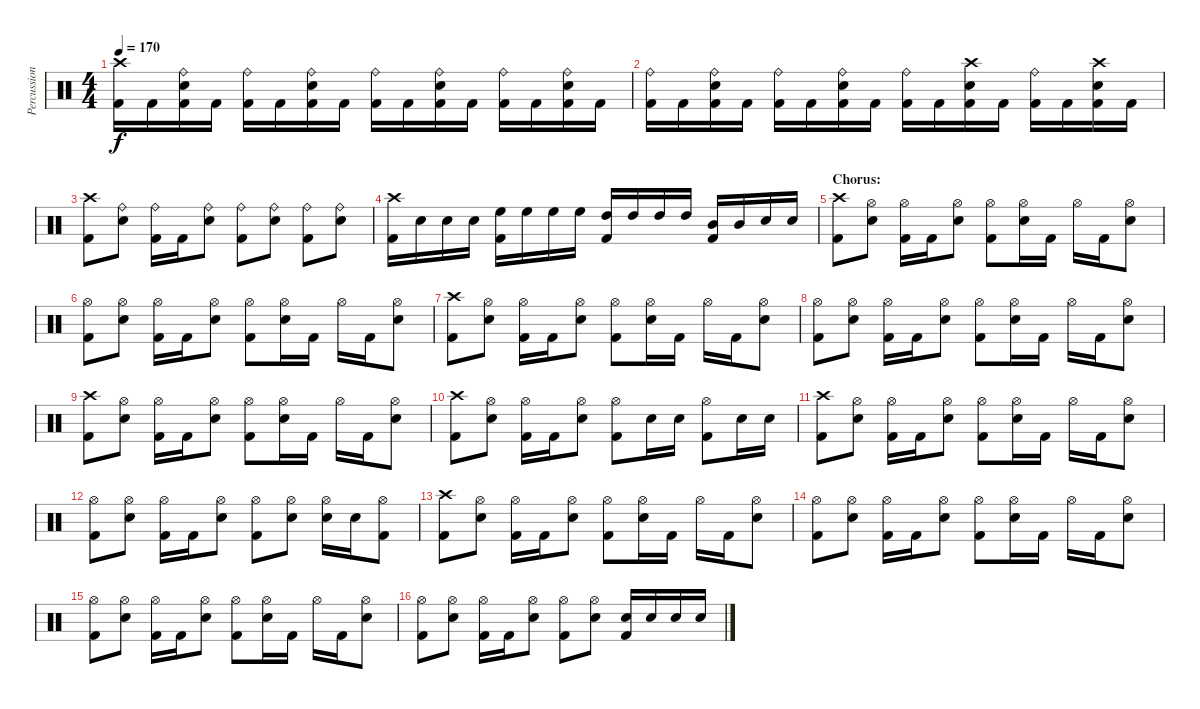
\track ("Percussion" "Percussion") {instrument percussion}
\staff {score}
\articulation defaults
\ts (4 4)
\tempo 170
\clef neutral
\ks c
("Crash high (hit)" "Kick (hit) 2").16{dy f} "Kick (hit) 2".16 ("Ride (bell)" "Electric Snare (hit)" "Kick (hit) 2").16 "Kick (hit) 2".16 ("Ride (bell)" "Kick (hit) 2").16 "Kick (hit) 2".16 ("Ride (bell)" "Electric Snare (hit)" "Kick (hit) 2").16 "Kick (hit) 2".16 ("Ride (bell)" "Kick (hit) 2").16 "Kick (hit) 2".16 ("Ride (bell)" "Electric Snare (hit)" "Kick (hit) 2").16 "Kick (hit) 2".16 ("Ride (bell)" "Kick (hit) 2").16 "Kick (hit) 2".16 ("Ride (bell)" "Electric Snare (hit)" "Kick (hit) 2").16 "Kick (hit) 2".16 |
("Ride (bell)" "Kick (hit) 2").16 "Kick (hit) 2".16 ("Ride (bell)" "Electric Snare (hit)" "Kick (hit) 2").16 "Kick (hit) 2".16 ("Ride (bell)" "Kick (hit) 2").16 "Kick (hit) 2".16 ("Ride (bell)" "Electric Snare (hit)" "Kick (hit) 2").16 "Kick (hit) 2".16 ("Ride (bell)" "Kick (hit) 2").16 "Kick (hit) 2".16 ("Crash high (hit)" "Electric Snare (hit)" "Kick (hit) 2").16 "Kick (hit) 2".16 ("Ride (bell)" "Kick (hit) 2").16 "Kick (hit) 2".16 ("Crash high (hit)" "Electric Snare (hit)" "Kick (hit) 2").16 "Kick (hit) 2".16 |
("Crash high (hit)" "Kick (hit) 2").8 ("Ride (bell)" "Electric Snare (hit)").8 ("Ride (bell)" "Kick (hit) 2").16 "Kick (hit) 2".16 ("Ride (bell)" "Electric Snare (hit)").8 ("Ride (bell)" "Kick (hit) 2").8 ("Ride (bell)" "Electric Snare (hit)").8 ("Ride (bell)" "Kick (hit) 2").8 ("Ride (bell)" "Electric Snare (hit)").8 |
("Crash high (hit)" "Kick (hit) 2").16 "Electric Snare (hit)".16 "Electric Snare (hit)".16 "Electric Snare (hit)".16 ("High Floor Tom (hit)" "Kick (hit) 2").16 "High Floor Tom (hit)".16 "High Floor Tom (hit)".16 "High Floor Tom (hit)".16 ("High Tom (hit)" "Kick (hit) 2").16 "High Tom (hit)".16 "High Tom (hit)".16 "High Tom (hit)".16 ("Mid Tom (hit)" "Kick (hit) 2").16 "Mid Tom (hit)".16 "Electric Snare (hit)".16 "Electric Snare (hit)".16 |
\section ("" "Chorus:")
("Crash high (hit)" "Kick (hit) 2").8 ("Hi-Hat (open)" "Electric Snare (hit)").8 ("Hi-Hat (open)" "Kick (hit) 2").16 "Kick (hit) 2".16 ("Hi-Hat (open)" "Electric Snare (hit)").8 ("Hi-Hat (open)" "Kick (hit) 2").8 ("Hi-Hat (open)" "Electric Snare (hit)").16 "Kick (hit) 2".16 "Hi-Hat (open)".16 "Kick (hit) 2".16 ("Hi-Hat (open)" "Electric Snare (hit)").8 |
("Hi-Hat (open)" "Kick (hit) 2").8 ("Hi-Hat (open)" "Electric Snare (hit)").8 ("Hi-Hat (open)" "Kick (hit) 2").16 "Kick (hit) 2".16 ("Hi-Hat (open)" "Electric Snare (hit)").8 ("Hi-Hat (open)" "Kick (hit) 2").8 ("Hi-Hat (open)" "Electric Snare (hit)").16 "Kick (hit) 2".16 "Hi-Hat (open)".16 "Kick (hit) 2".16 ("Hi-Hat (open)" "Electric Snare (hit)").8 |
("Crash high (hit)" "Kick (hit) 2").8 ("Hi-Hat (open)" "Electric Snare (hit)").8 ("Hi-Hat (open)" "Kick (hit) 2").16 "Kick (hit) 2".16 ("Hi-Hat (open)" "Electric Snare (hit)").8 ("Hi-Hat (open)" "Kick (hit) 2").8 ("Hi-Hat (open)" "Electric Snare (hit)").16 "Kick (hit) 2".16 "Hi-Hat (open)".16 "Kick (hit) 2".16 ("Hi-Hat (open)" "Electric Snare (hit)").8 |
("Hi-Hat (open)" "Kick (hit) 2").8 ("Hi-Hat (open)" "Electric Snare (hit)").8 ("Hi-Hat (open)" "Kick (hit) 2").16 "Kick (hit) 2".16 ("Hi-Hat (open)" "Electric Snare (hit)").8 ("Hi-Hat (open)" "Kick (hit) 2").8 ("Hi-Hat (open)" "Electric Snare (hit)").16 "Kick (hit) 2".16 "Hi-Hat (open)".16 "Kick (hit) 2".16 ("Hi-Hat (open)" "Electric Snare (hit)").8 |
("Crash high (hit)" "Kick (hit) 2").8 ("Hi-Hat (open)" "Electric Snare (hit)").8 ("Hi-Hat (open)" "Kick (hit) 2").16 "Kick (hit) 2".16 ("Hi-Hat (open)" "Electric Snare (hit)").8 ("Hi-Hat (open)" "Kick (hit) 2").8 ("Hi-Hat (open)" "Electric Snare (hit)").16 "Kick (hit) 2".16 "Hi-Hat (open)".16 "Kick (hit) 2".16 ("Hi-Hat (open)" "Electric Snare (hit)").8 |
("Crash high (hit)" "Kick (hit) 2").8 ("Hi-Hat (open)" "Electric Snare (hit)").8 ("Hi-Hat (open)" "Kick (hit) 2").16 "Kick (hit) 2".16 ("Hi-Hat (open)" "Electric Snare (hit)").8 ("Hi-Hat (open)" "Kick (hit) 2").8 "Electric Snare (hit)".16 "Electric Snare (hit)".16 ("Hi-Hat (open)" "Kick (hit) 2").8 "Electric Snare (hit)".16 "Electric Snare (hit)".16 |
("Crash high (hit)" "Kick (hit) 2").8 ("Hi-Hat (open)" "Electric Snare (hit)").8 ("Hi-Hat (open)" "Kick (hit) 2").16 "Kick (hit) 2".16 ("Hi-Hat (open)" "Electric Snare (hit)").8 ("Hi-Hat (open)" "Kick (hit) 2").8 ("Hi-Hat (open)" "Electric Snare (hit)").16 "Kick (hit) 2".16 "Hi-Hat (open)".16 "Kick (hit) 2".16 ("Hi-Hat (open)" "Electric Snare (hit)").8 |
("Hi-Hat (open)" "Kick (hit) 2").8 ("Hi-Hat (open)" "Electric Snare (hit)").8 ("Hi-Hat (open)" "Kick (hit) 2").16 "Kick (hit) 2".16 ("Hi-Hat (open)" "Electric Snare (hit)").8 ("Hi-Hat (open)" "Kick (hit) 2").8 ("Hi-Hat (open)" "Electric Snare (hit)").8 ("Hi-Hat (open)" "Electric Snare (hit)").16 "Electric Snare (hit)".16 ("Hi-Hat (open)" "Kick (hit) 2").8 |
("Crash high (hit)" "Kick (hit) 2").8 ("Hi-Hat (open)" "Electric Snare (hit)").8 ("Hi-Hat (open)" "Kick (hit) 2").16 "Kick (hit) 2".16 ("Hi-Hat (open)" "Electric Snare (hit)").8 ("Hi-Hat (open)" "Kick (hit) 2").8 ("Hi-Hat (open)" "Electric Snare (hit)").16 "Kick (hit) 2".16 "Hi-Hat (open)".16 "Kick (hit) 2".16 ("Hi-Hat (open)" "Electric Snare (hit)").8 |
("Hi-Hat (open)" "Kick (hit) 2").8 ("Hi-Hat (open)" "Electric Snare (hit)").8 ("Hi-Hat (open)" "Kick (hit) 2").16 "Kick (hit) 2".16 ("Hi-Hat (open)" "Electric Snare (hit)").8 ("Hi-Hat (open)" "Kick (hit) 2").8 ("Hi-Hat (open)" "Electric Snare (hit)").16 "Kick (hit) 2".16 "Hi-Hat (open)".16 "Kick (hit) 2".16 ("Hi-Hat (open)" "Electric Snare (hit)").8 |
("Hi-Hat (open)" "Kick (hit) 2").8 ("Hi-Hat (open)" "Electric Snare (hit)").8 ("Hi-Hat (open)" "Kick (hit) 2").16 "Kick (hit) 2".16 ("Hi-Hat (open)" "Electric Snare (hit)").8 ("Hi-Hat (open)" "Kick (hit) 2").8 ("Hi-Hat (open)" "Electric Snare (hit)").16 "Kick (hit) 2".16 "Hi-Hat (open)".16 "Kick (hit) 2".16 ("Hi-Hat (open)" "Electric Snare (hit)").8 |
("Hi-Hat (open)" "Kick (hit) 2").8 ("Hi-Hat (open)" "Electric Snare (hit)").8 ("Hi-Hat (open)" "Kick (hit) 2").16 "Kick (hit) 2".16 ("Hi-Hat (open)" "Electric Snare (hit)").8 ("Hi-Hat (open)" "Kick (hit) 2").8 ("Hi-Hat (open)" "Electric Snare (hit)").8 ("Electric Snare (hit)" "Kick (hit) 2").16 "Electric Snare (hit)".16 "Electric Snare (hit)".16 "Electric Snare (hit)".16
